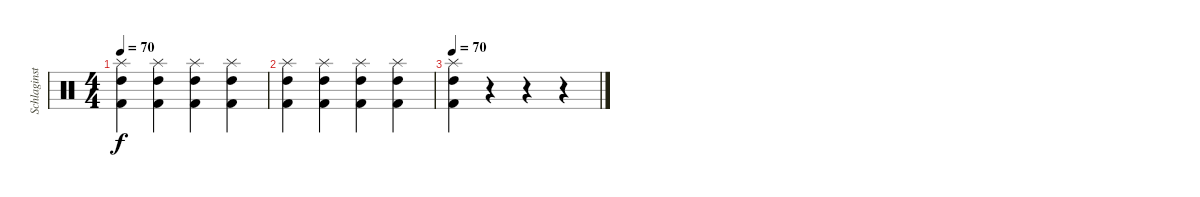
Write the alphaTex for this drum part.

\track ("Schlaginstrumente - Auswahl" "Schlaginst") {instrument percussion}
\staff {score}
\articulation defaults
\ts (4 4)
\tempo 70
\clef neutral
\ks c
("Splash (hit)" "High Tom (hit)" "Kick (hit) 2").4{dy f} ("Splash (hit)" "High Tom (hit)" "Kick (hit) 2").4 ("Splash (hit)" "High Tom (hit)" "Kick (hit) 2").4 ("Splash (hit)" "High Tom (hit)" "Kick (hit) 2").4 |
("Splash (hit)" "High Tom (hit)" "Kick (hit) 2").4 ("Splash (hit)" "High Tom (hit)" "Kick (hit) 2").4 ("Splash (hit)" "High Tom (hit)" "Kick (hit) 2").4 ("Splash (hit)" "High Tom (hit)" "Kick (hit) 2").4 |
\tempo 70
("Splash (hit)" "High Tom (hit)" "Kick (hit) 2").4 r.4 r.4 r.4
